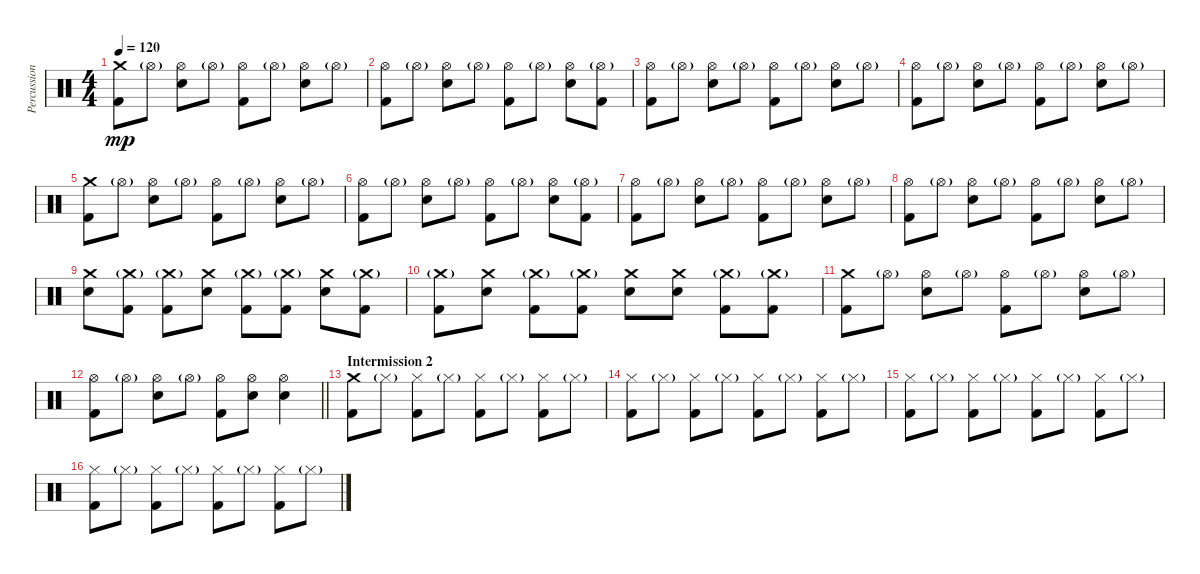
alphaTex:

\track ("Percussion" "Percussion") {instrument percussion}
\staff {score}
\articulation defaults
\ts (4 4)
\tempo 120
\clef neutral
\ks c
("Crash medium (hit)" "Kick (hit) 2").8{dy mp} "Hi-Hat (open)"{g}.8 ("Hi-Hat (open)" "Electric Snare (hit)").8 "Hi-Hat (open)"{g}.8 ("Hi-Hat (open)" "Kick (hit) 2").8 "Hi-Hat (open)"{g}.8 ("Hi-Hat (open)" "Electric Snare (hit)").8 "Hi-Hat (open)"{g}.8 |
("Hi-Hat (open)" "Kick (hit) 2").8 "Hi-Hat (open)"{g}.8 ("Hi-Hat (open)" "Electric Snare (hit)").8 "Hi-Hat (open)"{g}.8 ("Hi-Hat (open)" "Kick (hit) 2").8 "Hi-Hat (open)"{g}.8 ("Hi-Hat (open)" "Electric Snare (hit)").8 ("Hi-Hat (open)"{g} "Kick (hit) 2").8 |
("Hi-Hat (open)" "Kick (hit) 2").8 "Hi-Hat (open)"{g}.8 ("Hi-Hat (open)" "Electric Snare (hit)").8 "Hi-Hat (open)"{g}.8 ("Hi-Hat (open)" "Kick (hit) 2").8 "Hi-Hat (open)"{g}.8 ("Hi-Hat (open)" "Electric Snare (hit)").8 "Hi-Hat (open)"{g}.8 |
("Hi-Hat (open)" "Kick (hit) 2").8 "Hi-Hat (open)"{g}.8 ("Hi-Hat (open)" "Electric Snare (hit)").8 "Hi-Hat (open)"{g}.8 ("Hi-Hat (open)" "Kick (hit) 2").8 "Hi-Hat (open)"{g}.8 ("Hi-Hat (open)" "Electric Snare (hit)").8 "Hi-Hat (open)"{g}.8 |
("Crash medium (hit)" "Kick (hit) 2").8 "Hi-Hat (open)"{g}.8 ("Hi-Hat (open)" "Electric Snare (hit)").8 "Hi-Hat (open)"{g}.8 ("Hi-Hat (open)" "Kick (hit) 2").8 "Hi-Hat (open)"{g}.8 ("Hi-Hat (open)" "Electric Snare (hit)").8 "Hi-Hat (open)"{g}.8 |
("Hi-Hat (open)" "Kick (hit) 2").8 "Hi-Hat (open)"{g}.8 ("Hi-Hat (open)" "Electric Snare (hit)").8 "Hi-Hat (open)"{g}.8 ("Hi-Hat (open)" "Kick (hit) 2").8 "Hi-Hat (open)"{g}.8 ("Hi-Hat (open)" "Electric Snare (hit)").8 ("Hi-Hat (open)"{g} "Kick (hit) 2").8 |
("Hi-Hat (open)" "Kick (hit) 2").8 "Hi-Hat (open)"{g}.8 ("Hi-Hat (open)" "Electric Snare (hit)").8 "Hi-Hat (open)"{g}.8 ("Hi-Hat (open)" "Kick (hit) 2").8 "Hi-Hat (open)"{g}.8 ("Hi-Hat (open)" "Electric Snare (hit)").8 "Hi-Hat (open)"{g}.8 |
("Hi-Hat (open)" "Kick (hit) 2").8 "Hi-Hat (open)"{g}.8 ("Hi-Hat (open)" "Electric Snare (hit)").8 "Hi-Hat (open)"{g}.8 ("Hi-Hat (open)" "Kick (hit) 2").8 "Hi-Hat (open)"{g}.8 ("Hi-Hat (open)" "Electric Snare (hit)").8 "Hi-Hat (open)"{g}.8 |
("Crash medium (hit)" "Electric Snare (hit)").8 ("Crash medium (hit)"{g} "Kick (hit) 2").8 ("Crash medium (hit)"{g} "Kick (hit) 2").8 ("Crash medium (hit)" "Electric Snare (hit)").8 ("Crash medium (hit)"{g} "Kick (hit) 2").8 ("Crash medium (hit)"{g} "Kick (hit) 2").8 ("Crash medium (hit)" "Electric Snare (hit)").8 ("Crash medium (hit)"{g} "Kick (hit) 2").8 |
("Crash medium (hit)"{g} "Kick (hit) 2").8 ("Crash medium (hit)" "Electric Snare (hit)").8 ("Crash medium (hit)"{g} "Kick (hit) 2").8 ("Crash medium (hit)"{g} "Kick (hit) 2").8 ("Crash medium (hit)" "Electric Snare (hit)").8 ("Crash medium (hit)" "Electric Snare (hit)").8 ("Crash medium (hit)"{g} "Kick (hit) 2").8 ("Crash medium (hit)"{g} "Kick (hit) 2").8 |
("Crash medium (hit)" "Kick (hit) 2").8 "Hi-Hat (open)"{g}.8 ("Hi-Hat (open)" "Electric Snare (hit)").8 "Hi-Hat (open)"{g}.8 ("Hi-Hat (open)" "Kick (hit) 2").8 "Hi-Hat (open)"{g}.8 ("Hi-Hat (open)" "Electric Snare (hit)").8 "Hi-Hat (open)"{g}.8 |
\barLineRight lightlight
("Hi-Hat (open)" "Kick (hit) 2").8 "Hi-Hat (open)"{g}.8 ("Hi-Hat (open)" "Electric Snare (hit)").8 "Hi-Hat (open)"{g}.8 ("Hi-Hat (open)" "Kick (hit) 2").8 ("Hi-Hat (open)" "Electric Snare (hit)").8 ("Hi-Hat (open)" "Electric Snare (hit)").4 |
\section ("" "Intermission 2")
("Crash medium (hit)" "Kick (hit) 2").8 "Hi-Hat (closed)"{g}.8 ("Hi-Hat (closed)" "Kick (hit) 2").8 "Hi-Hat (closed)"{g}.8 ("Hi-Hat (closed)" "Kick (hit) 2").8 "Hi-Hat (closed)"{g}.8 ("Hi-Hat (closed)" "Kick (hit) 2").8 "Hi-Hat (closed)"{g}.8 |
("Hi-Hat (closed)" "Kick (hit) 2").8 "Hi-Hat (closed)"{g}.8 ("Hi-Hat (closed)" "Kick (hit) 2").8 "Hi-Hat (closed)"{g}.8 ("Hi-Hat (closed)" "Kick (hit) 2").8 "Hi-Hat (closed)"{g}.8 ("Hi-Hat (closed)" "Kick (hit) 2").8 "Hi-Hat (closed)"{g}.8 |
("Hi-Hat (closed)" "Kick (hit) 2").8 "Hi-Hat (closed)"{g}.8 ("Hi-Hat (closed)" "Kick (hit) 2").8 "Hi-Hat (closed)"{g}.8 ("Hi-Hat (closed)" "Kick (hit) 2").8 "Hi-Hat (closed)"{g}.8 ("Hi-Hat (closed)" "Kick (hit) 2").8 "Hi-Hat (closed)"{g}.8 |
("Hi-Hat (closed)" "Kick (hit) 2").8 "Hi-Hat (closed)"{g}.8 ("Hi-Hat (closed)" "Kick (hit) 2").8 "Hi-Hat (closed)"{g}.8 ("Hi-Hat (closed)" "Kick (hit) 2").8 "Hi-Hat (closed)"{g}.8 ("Hi-Hat (closed)" "Kick (hit) 2").8 "Hi-Hat (closed)"{g}.8
